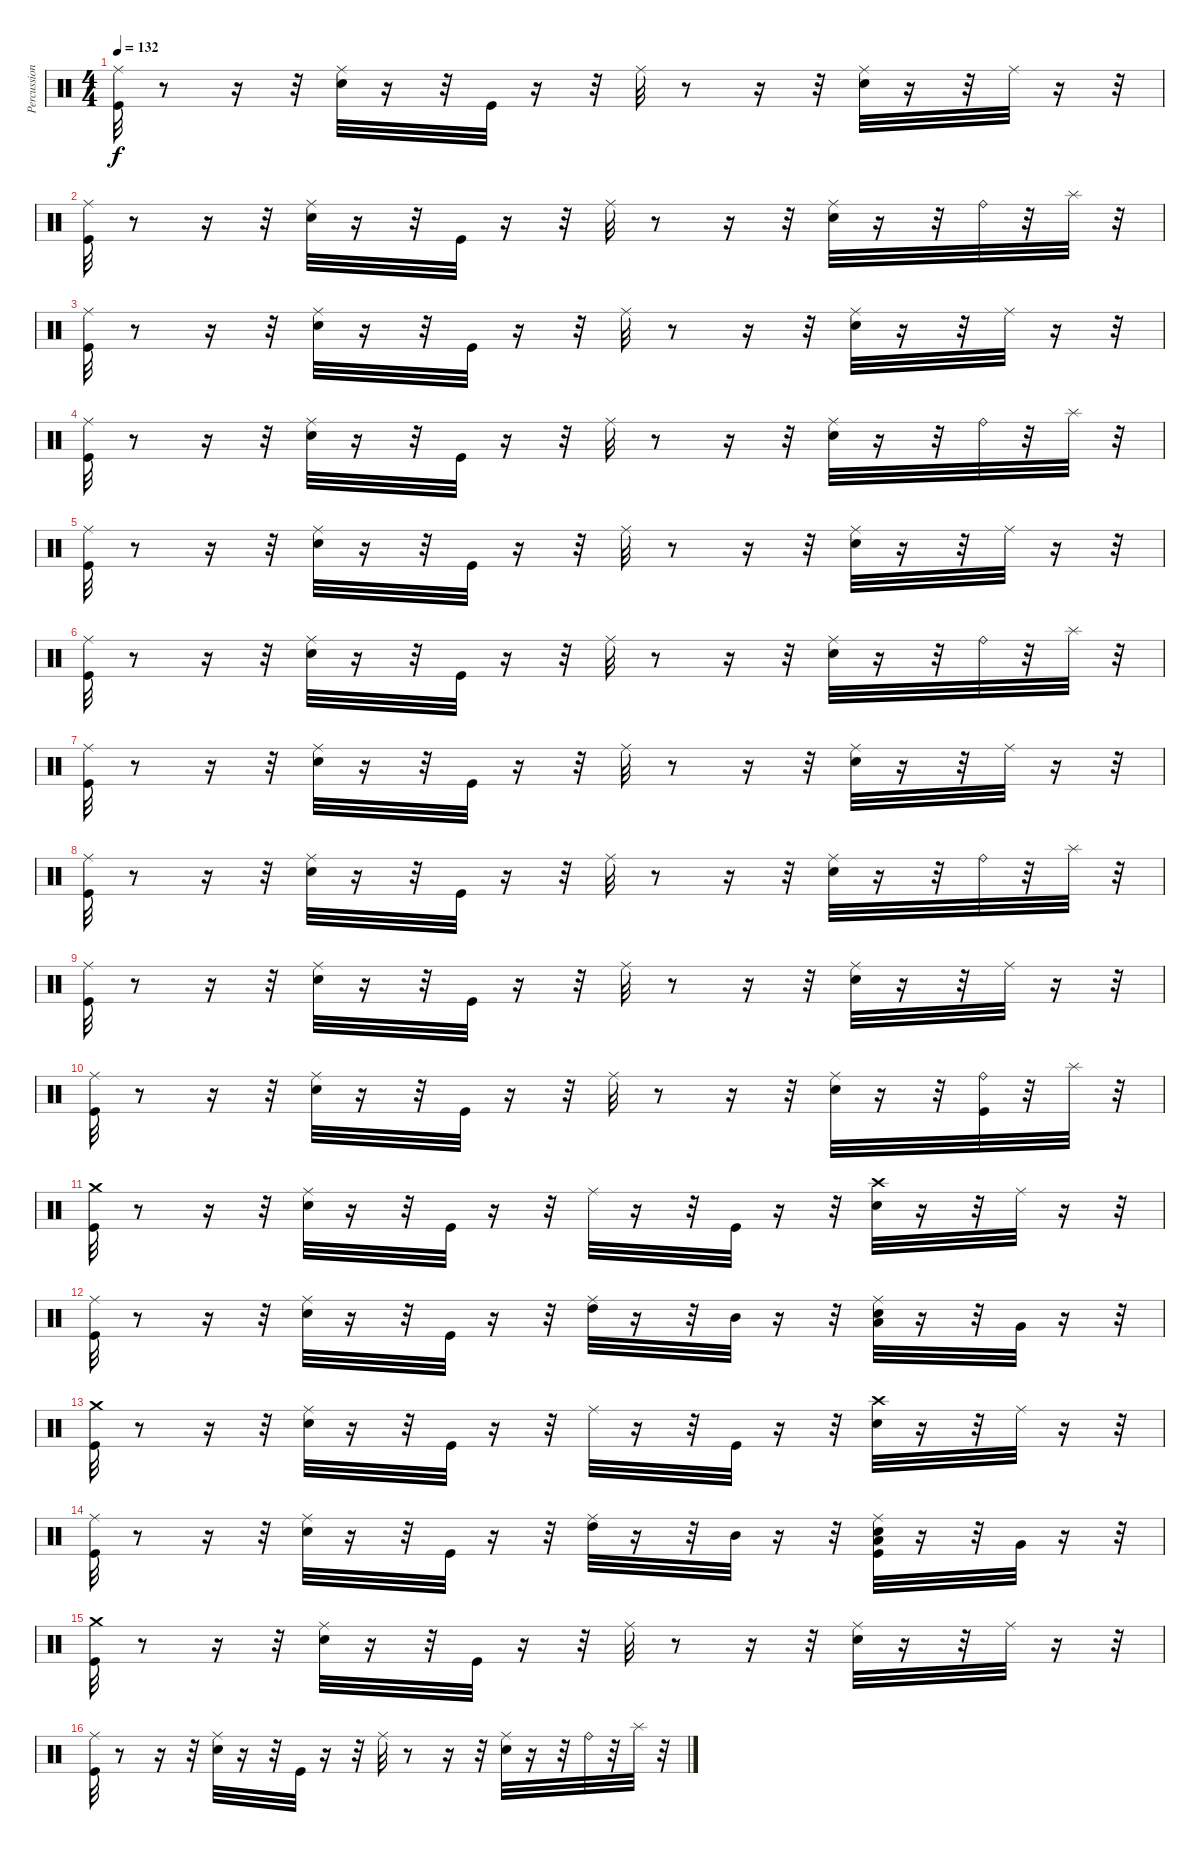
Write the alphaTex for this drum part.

\track ("Percussions" "Percussion") {instrument percussion}
\staff {score}
\articulation defaults
\ts (4 4)
\tempo 132
\clef neutral
\ks c
("Ride (middle)" "Kick (hit)").32{dy f} r.8 r.16 r.32 ("Ride (middle)" "Electric Snare (hit)").32 r.16 r.32 "Kick (hit)".32 r.16 r.32 "Ride (middle)".32 r.8 r.16 r.32 ("Ride (middle)" "Electric Snare (hit)").32 r.16 r.32 "Ride (middle)".32 r.16 r.32 |
("Kick (hit)" "Ride (middle)").32 r.8 r.16 r.32 ("Electric Snare (hit)" "Ride (middle)").32 r.16 r.32 "Kick (hit)".32 r.16 r.32 "Ride (middle)".32 r.8 r.16 r.32 ("Electric Snare (hit)" "Ride (middle)").32 r.16 r.32 "Ride (bell)".32 r.32 "Splash (hit)".32 r.32 |
("Ride (middle)" "Kick (hit)").32 r.8 r.16 r.32 ("Ride (middle)" "Electric Snare (hit)").32 r.16 r.32 "Kick (hit)".32 r.16 r.32 "Ride (middle)".32 r.8 r.16 r.32 ("Ride (middle)" "Electric Snare (hit)").32 r.16 r.32 "Ride (middle)".32 r.16 r.32 |
("Kick (hit)" "Ride (middle)").32 r.8 r.16 r.32 ("Electric Snare (hit)" "Ride (middle)").32 r.16 r.32 "Kick (hit)".32 r.16 r.32 "Ride (middle)".32 r.8 r.16 r.32 ("Electric Snare (hit)" "Ride (middle)").32 r.16 r.32 "Ride (bell)".32 r.32 "Splash (hit)".32 r.32 |
("Ride (middle)" "Kick (hit)").32 r.8 r.16 r.32 ("Ride (middle)" "Electric Snare (hit)").32 r.16 r.32 "Kick (hit)".32 r.16 r.32 "Ride (middle)".32 r.8 r.16 r.32 ("Ride (middle)" "Electric Snare (hit)").32 r.16 r.32 "Ride (middle)".32 r.16 r.32 |
("Kick (hit)" "Ride (middle)").32 r.8 r.16 r.32 ("Electric Snare (hit)" "Ride (middle)").32 r.16 r.32 "Kick (hit)".32 r.16 r.32 "Ride (middle)".32 r.8 r.16 r.32 ("Electric Snare (hit)" "Ride (middle)").32 r.16 r.32 "Ride (bell)".32 r.32 "Splash (hit)".32 r.32 |
("Ride (middle)" "Kick (hit)").32 r.8 r.16 r.32 ("Ride (middle)" "Electric Snare (hit)").32 r.16 r.32 "Kick (hit)".32 r.16 r.32 "Ride (middle)".32 r.8 r.16 r.32 ("Ride (middle)" "Electric Snare (hit)").32 r.16 r.32 "Ride (middle)".32 r.16 r.32 |
("Kick (hit)" "Ride (middle)").32 r.8 r.16 r.32 ("Electric Snare (hit)" "Ride (middle)").32 r.16 r.32 "Kick (hit)".32 r.16 r.32 "Ride (middle)".32 r.8 r.16 r.32 ("Electric Snare (hit)" "Ride (middle)").32 r.16 r.32 "Ride (bell)".32 r.32 "Splash (hit)".32 r.32 |
("Ride (middle)" "Kick (hit)").32 r.8 r.16 r.32 ("Ride (middle)" "Electric Snare (hit)").32 r.16 r.32 "Kick (hit)".32 r.16 r.32 "Ride (middle)".32 r.8 r.16 r.32 ("Ride (middle)" "Electric Snare (hit)").32 r.16 r.32 "Ride (middle)".32 r.16 r.32 |
("Kick (hit)" "Ride (middle)").32 r.8 r.16 r.32 ("Electric Snare (hit)" "Ride (middle)").32 r.16 r.32 "Kick (hit)".32 r.16 r.32 "Ride (middle)".32 r.8 r.16 r.32 ("Electric Snare (hit)" "Ride (middle)").32 r.16 r.32 ("Kick (hit)" "Ride (bell)").32 r.32 "Splash (hit)".32 r.32 |
("Crash medium (hit)" "Kick (hit)").32 r.8 r.16 r.32 ("Ride (middle)" "Electric Snare (hit)").32 r.16 r.32 "Kick (hit)".32 r.16 r.32 "Ride (middle)".32 r.16 r.32 "Kick (hit)".32 r.16 r.32 ("Crash high (hit)" "Electric Snare (hit)").32 r.16 r.32 "Ride (middle)".32 r.16 r.32 |
("Kick (hit)" "Ride (middle)").32 r.8 r.16 r.32 ("Electric Snare (hit)" "Ride (middle)").32 r.16 r.32 "Kick (hit)".32 r.16 r.32 ("High Tom (hit)" "Ride (middle)").32 r.16 r.32 "Mid Tom (hit)".32 r.16 r.32 ("Low Tom (hit)" "Electric Snare (hit)" "Ride (middle)").32 r.16 r.32 "Very Low Tom (hit)".32 r.16 r.32 |
("Crash medium (hit)" "Kick (hit)").32 r.8 r.16 r.32 ("Ride (middle)" "Electric Snare (hit)").32 r.16 r.32 "Kick (hit)".32 r.16 r.32 "Ride (middle)".32 r.16 r.32 "Kick (hit)".32 r.16 r.32 ("Crash high (hit)" "Electric Snare (hit)").32 r.16 r.32 "Ride (middle)".32 r.16 r.32 |
("Kick (hit)" "Ride (middle)").32 r.8 r.16 r.32 ("Electric Snare (hit)" "Ride (middle)").32 r.16 r.32 "Kick (hit)".32 r.16 r.32 ("High Tom (hit)" "Ride (middle)").32 r.16 r.32 "Mid Tom (hit)".32 r.16 r.32 ("Electric Snare (hit)" "Low Tom (hit)" "Kick (hit)" "Ride (middle)").32 r.16 r.32 "Very Low Tom (hit)".32 r.16 r.32 |
("Crash medium (hit)" "Kick (hit)").32 r.8 r.16 r.32 ("Ride (middle)" "Electric Snare (hit)").32 r.16 r.32 "Kick (hit)".32 r.16 r.32 "Ride (middle)".32 r.8 r.16 r.32 ("Ride (middle)" "Electric Snare (hit)").32 r.16 r.32 "Ride (middle)".32 r.16 r.32 |
("Kick (hit)" "Ride (middle)").32 r.8 r.16 r.32 ("Electric Snare (hit)" "Ride (middle)").32 r.16 r.32 "Kick (hit)".32 r.16 r.32 "Ride (middle)".32 r.8 r.16 r.32 ("Electric Snare (hit)" "Ride (middle)").32 r.16 r.32 "Ride (bell)".32 r.32 "Splash (hit)".32 r.32
